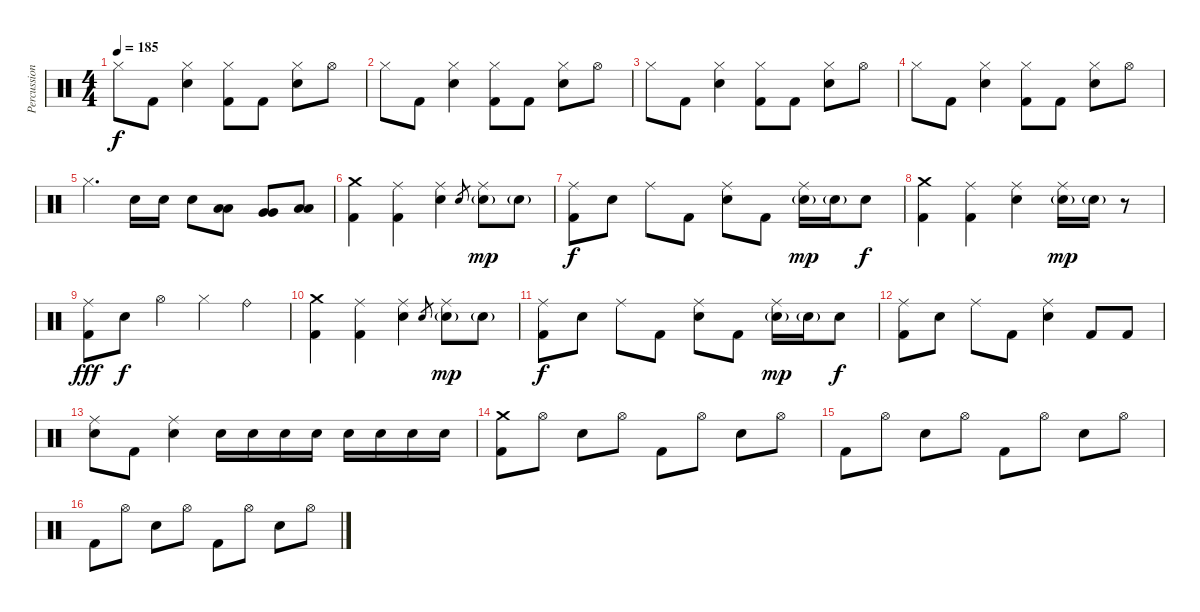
\track ("Percussion" "Percussion") {instrument percussion}
\staff {score}
\articulation defaults
\ts (4 4)
\tempo 185
\clef neutral
\ks c "Hi-Hat (closed)".8{dy f} "Kick (hit) 2".8
("Hi-Hat (closed)" "Electric Snare (hit)").4 ("Hi-Hat (closed)" "Kick (hit) 2").8 "Kick (hit) 2".8 ("Hi-Hat (closed)" "Electric Snare (hit)").8 "Hi-Hat (open)".8 |
"Hi-Hat (closed)".8 "Kick (hit) 2".8 ("Hi-Hat (closed)" "Electric Snare (hit)").4 ("Hi-Hat (closed)" "Kick (hit) 2").8 "Kick (hit) 2".8 ("Hi-Hat (closed)" "Electric Snare (hit)").8 "Hi-Hat (open)".8 |
"Hi-Hat (closed)".8 "Kick (hit) 2".8 ("Hi-Hat (closed)" "Electric Snare (hit)").4 ("Hi-Hat (closed)" "Kick (hit) 2").8 "Kick (hit) 2".8 ("Hi-Hat (closed)" "Electric Snare (hit)").8 "Hi-Hat (open)".8 |
"Hi-Hat (closed)".8 "Kick (hit) 2".8 ("Hi-Hat (closed)" "Electric Snare (hit)").4 ("Hi-Hat (closed)" "Kick (hit) 2").8 "Kick (hit) 2".8 ("Hi-Hat (closed)" "Electric Snare (hit)").8 "Hi-Hat (open)".8 |
"Hi-Hat (closed)".4{d} "Electric Snare (hit)".16 "Electric Snare (hit)".16 "Electric Snare (hit)".8 ("Low Tom (hit)" "Low Tom (hit)").8 ("Very Low Tom (hit)" "Very Low Tom (hit)").8 ("Low Floor Tom (hit)" "Low Floor Tom (hit)").8 |
("Crash medium (hit)" "Kick (hit) 2").4 ("Ride (middle)" "Kick (hit) 2").4 ("Ride (middle)" "Electric Snare (hit)").4 "Electric Snare (hit)".8{gr} ("Ride (middle)" "Electric Snare (hit)"{g}).8{dy mp} "Electric Snare (hit)"{g}.8 |
("Ride (middle)" "Kick (hit) 2").8{dy f} "Electric Snare (hit)".8 "Ride (middle)".8 "Kick (hit) 2".8 ("Ride (middle)" "Electric Snare (hit)").8 "Kick (hit) 2".8 ("Ride (middle)" "Electric Snare (hit)"{g}).16{dy mp} "Electric Snare (hit)"{g}.16 "Electric Snare (hit)".8{dy f} |
("Crash medium (hit)" "Kick (hit) 2").4 ("Ride (middle)" "Kick (hit) 2").4 ("Ride (middle)" "Electric Snare (hit)").4 ("Ride (middle)" "Electric Snare (hit)"{g}).16{dy mp} "Electric Snare (hit)"{g}.16 r.8 |
("Ride (middle)" "Kick (hit) 2").8{dy fff} "Electric Snare (hit)".8{dy f} "Hi-Hat (open)".4 "Hi-Hat (closed)".4 "Ride (bell)".4 |
("Crash medium (hit)" "Kick (hit) 2").4 ("Ride (middle)" "Kick (hit) 2").4 ("Ride (middle)" "Electric Snare (hit)").4 "Electric Snare (hit)".8{gr} ("Ride (middle)" "Electric Snare (hit)"{g}).8{dy mp} "Electric Snare (hit)"{g}.8 |
("Ride (middle)" "Kick (hit) 2").8{dy f} "Electric Snare (hit)".8 "Ride (middle)".8 "Kick (hit) 2".8 ("Ride (middle)" "Electric Snare (hit)").8 "Kick (hit) 2".8 ("Ride (middle)" "Electric Snare (hit)"{g}).16{dy mp} "Electric Snare (hit)"{g}.16 "Electric Snare (hit)".8{dy f} |
("Ride (middle)" "Kick (hit) 2").8 "Electric Snare (hit)".8 "Ride (middle)".8 "Kick (hit) 2".8 ("Ride (middle)" "Electric Snare (hit)").4 "Kick (hit) 2".8 "Kick (hit) 2".8 |
("Ride (middle)" "Electric Snare (hit)").8 "Kick (hit) 2".8 ("Ride (middle)" "Electric Snare (hit)").4 "Electric Snare (hit)".16 "Electric Snare (hit)".16 "Electric Snare (hit)".16 "Electric Snare (hit)".16 "Electric Snare (hit)".16 "Electric Snare (hit)".16 "Electric Snare (hit)".16 "Electric Snare (hit)".16 |
("Crash medium (hit)" "Kick (hit) 2").8 "Hi-Hat (open)".8 "Electric Snare (hit)".8 "Hi-Hat (open)".8 "Kick (hit) 2".8 "Hi-Hat (open)".8 "Electric Snare (hit)".8 "Hi-Hat (open)".8 |
"Kick (hit) 2".8 "Hi-Hat (open)".8 "Electric Snare (hit)".8 "Hi-Hat (open)".8 "Kick (hit) 2".8 "Hi-Hat (open)".8 "Electric Snare (hit)".8 "Hi-Hat (open)".8 |
"Kick (hit) 2".8 "Hi-Hat (open)".8 "Electric Snare (hit)".8 "Hi-Hat (open)".8 "Kick (hit) 2".8 "Hi-Hat (open)".8 "Electric Snare (hit)".8 "Hi-Hat (open)".8
